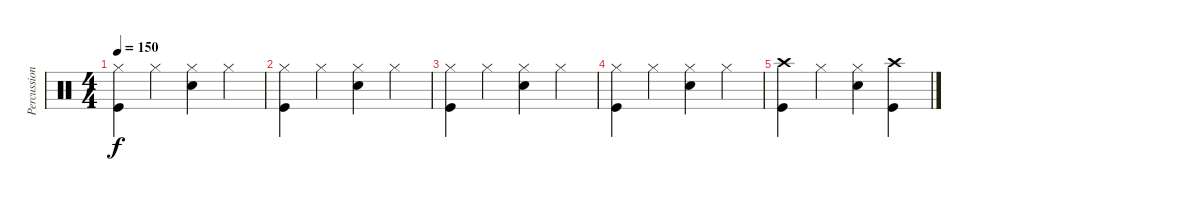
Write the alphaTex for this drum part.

\track ("Percussion" "Percussion") {instrument percussion}
\staff {score}
\articulation defaults
\ts (4 4)
\tempo 150
\clef neutral
\ks c
("Hi-Hat (closed)" "Kick (hit)").4{dy f} "Hi-Hat (closed)".4 ("Hi-Hat (closed)" "Snare (hit) 2").4 "Hi-Hat (closed)".4 |
("Hi-Hat (closed)" "Kick (hit)").4 "Hi-Hat (closed)".4 ("Hi-Hat (closed)" "Snare (hit) 2").4 "Hi-Hat (closed)".4 |
("Hi-Hat (closed)" "Kick (hit)").4 "Hi-Hat (closed)".4 ("Hi-Hat (closed)" "Snare (hit) 2").4 "Hi-Hat (closed)".4 |
("Hi-Hat (closed)" "Kick (hit)").4 "Hi-Hat (closed)".4 ("Hi-Hat (closed)" "Snare (hit) 2").4 "Hi-Hat (closed)".4 |
("Crash high (hit)" "Kick (hit)").4 "Hi-Hat (closed)".4 ("Hi-Hat (closed)" "Snare (hit) 2").4 ("Crash high (hit)" "Kick (hit)").4
